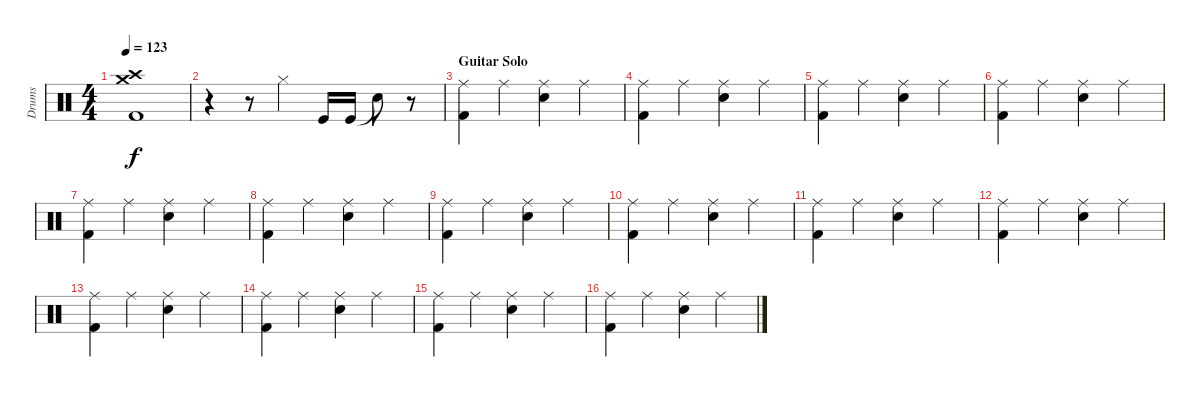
\track ("Drums" "Drums") {instrument percussion}
\staff {score}
\articulation defaults
\ts (4 4)
\tempo 123
\clef neutral
\ks c
("Crash high (hit)" "Crash medium (hit)" "Kick (hit) 2").1{dy f} |
r.4 r.8 "Hi-Hat (closed)".4 "Kick (hit)".16 "Kick (hit)".16 "Snare (hit)"{t}.8 r.8 |
\section ("" "Guitar Solo")
("Ride (middle)" "Kick (hit) 2").4 "Ride (middle)".4 ("Ride (middle)" "Electric Snare (hit)").4 "Ride (middle)".4 |
("Ride (middle)" "Kick (hit) 2").4 "Ride (middle)".4 ("Ride (middle)" "Electric Snare (hit)").4 "Ride (middle)".4 |
("Ride (middle)" "Kick (hit) 2").4 "Ride (middle)".4 ("Ride (middle)" "Electric Snare (hit)").4 "Ride (middle)".4 |
("Ride (middle)" "Kick (hit) 2").4 "Ride (middle)".4 ("Ride (middle)" "Electric Snare (hit)").4 "Ride (middle)".4 |
("Ride (middle)" "Kick (hit) 2").4 "Ride (middle)".4 ("Ride (middle)" "Electric Snare (hit)").4 "Ride (middle)".4 |
("Ride (middle)" "Kick (hit) 2").4 "Ride (middle)".4 ("Ride (middle)" "Electric Snare (hit)").4 "Ride (middle)".4 |
("Ride (middle)" "Kick (hit) 2").4 "Ride (middle)".4 ("Ride (middle)" "Electric Snare (hit)").4 "Ride (middle)".4 |
("Ride (middle)" "Kick (hit) 2").4 "Ride (middle)".4 ("Ride (middle)" "Electric Snare (hit)").4 "Ride (middle)".4 |
("Ride (middle)" "Kick (hit) 2").4 "Ride (middle)".4 ("Ride (middle)" "Electric Snare (hit)").4 "Ride (middle)".4 |
("Ride (middle)" "Kick (hit) 2").4 "Ride (middle)".4 ("Ride (middle)" "Electric Snare (hit)").4 "Ride (middle)".4 |
("Ride (middle)" "Kick (hit) 2").4 "Ride (middle)".4 ("Ride (middle)" "Electric Snare (hit)").4 "Ride (middle)".4 |
("Ride (middle)" "Kick (hit) 2").4 "Ride (middle)".4 ("Ride (middle)" "Electric Snare (hit)").4 "Ride (middle)".4 |
("Ride (middle)" "Kick (hit) 2").4 "Ride (middle)".4 ("Ride (middle)" "Electric Snare (hit)").4 "Ride (middle)".4 |
("Ride (middle)" "Kick (hit) 2").4 "Ride (middle)".4 ("Ride (middle)" "Electric Snare (hit)").4 "Ride (middle)".4
